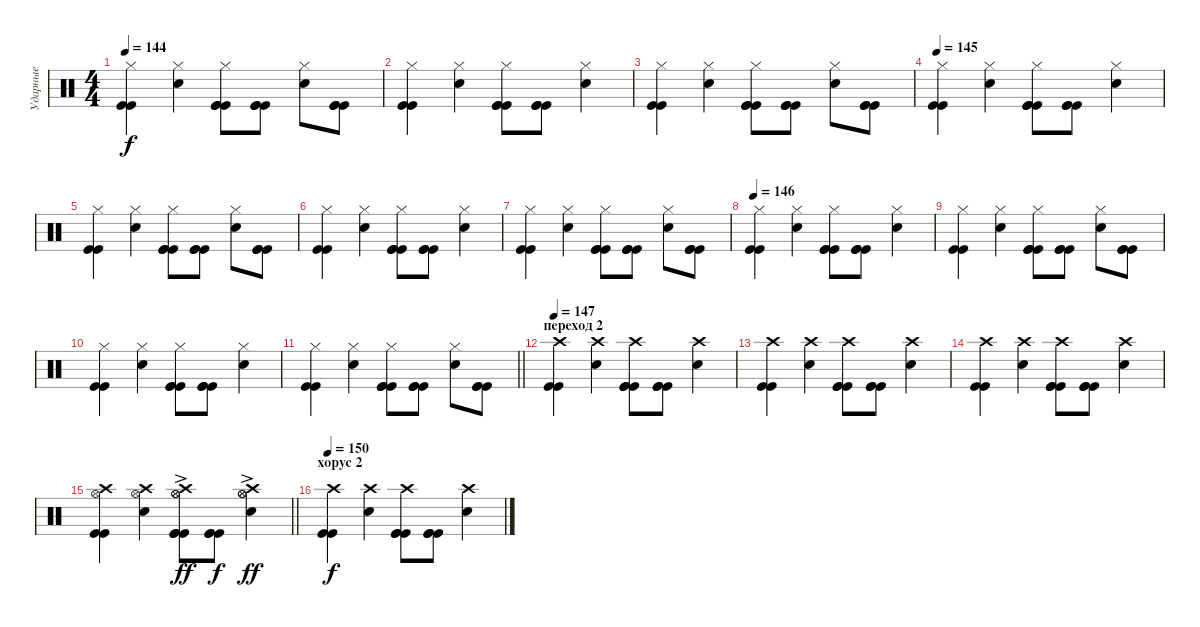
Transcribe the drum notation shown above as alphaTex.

\track ("Ударные" "Ударные") {instrument percussion}
\staff {score}
\articulation defaults
\ts (4 4)
\tempo 144
\clef neutral
\ks c
("Hi-Hat (closed)" "Kick (hit)" "Kick (hit)").4{dy f} ("Snare (hit) 2" "Hi-Hat (closed)").4 ("Kick (hit)" "Kick (hit)" "Kick (hit)" "Hi-Hat (closed)").8 ("Kick (hit)" "Kick (hit)" "Kick (hit)").8 ("Snare (hit) 2" "Hi-Hat (closed)").8 ("Kick (hit)" "Kick (hit)" "Kick (hit)").8 |
("Hi-Hat (closed)" "Kick (hit)" "Kick (hit)").4 ("Snare (hit) 2" "Hi-Hat (closed)").4 ("Kick (hit)" "Kick (hit)" "Kick (hit)" "Hi-Hat (closed)").8 ("Kick (hit)" "Kick (hit)" "Kick (hit)").8 ("Snare (hit) 2" "Hi-Hat (closed)").4 |
("Hi-Hat (closed)" "Kick (hit)" "Kick (hit)").4 ("Snare (hit) 2" "Hi-Hat (closed)").4 ("Kick (hit)" "Kick (hit)" "Kick (hit)" "Hi-Hat (closed)").8 ("Kick (hit)" "Kick (hit)" "Kick (hit)").8 ("Snare (hit) 2" "Hi-Hat (closed)").8 ("Kick (hit)" "Kick (hit)" "Kick (hit)").8 |
\tempo 145
("Hi-Hat (closed)" "Kick (hit)" "Kick (hit)").4 ("Snare (hit) 2" "Hi-Hat (closed)").4 ("Kick (hit)" "Kick (hit)" "Kick (hit)" "Hi-Hat (closed)").8 ("Kick (hit)" "Kick (hit)" "Kick (hit)").8 ("Snare (hit) 2" "Hi-Hat (closed)").4 |
("Hi-Hat (closed)" "Kick (hit)" "Kick (hit)").4 ("Snare (hit) 2" "Hi-Hat (closed)").4 ("Kick (hit)" "Kick (hit)" "Kick (hit)" "Hi-Hat (closed)").8 ("Kick (hit)" "Kick (hit)" "Kick (hit)").8 ("Snare (hit) 2" "Hi-Hat (closed)").8 ("Kick (hit)" "Kick (hit)" "Kick (hit)").8 |
("Hi-Hat (closed)" "Kick (hit)" "Kick (hit)").4 ("Snare (hit) 2" "Hi-Hat (closed)").4 ("Kick (hit)" "Kick (hit)" "Kick (hit)" "Hi-Hat (closed)").8 ("Kick (hit)" "Kick (hit)" "Kick (hit)").8 ("Snare (hit) 2" "Hi-Hat (closed)").4 |
("Hi-Hat (closed)" "Kick (hit)" "Kick (hit)").4 ("Snare (hit) 2" "Hi-Hat (closed)").4 ("Kick (hit)" "Kick (hit)" "Kick (hit)" "Hi-Hat (closed)").8 ("Kick (hit)" "Kick (hit)" "Kick (hit)").8 ("Snare (hit) 2" "Hi-Hat (closed)").8 ("Kick (hit)" "Kick (hit)" "Kick (hit)").8 |
\tempo 146
("Hi-Hat (closed)" "Kick (hit)" "Kick (hit)").4 ("Snare (hit) 2" "Hi-Hat (closed)").4 ("Kick (hit)" "Kick (hit)" "Kick (hit)" "Hi-Hat (closed)").8 ("Kick (hit)" "Kick (hit)" "Kick (hit)").8 ("Snare (hit) 2" "Hi-Hat (closed)").4 |
("Hi-Hat (closed)" "Kick (hit)" "Kick (hit)").4 ("Snare (hit) 2" "Hi-Hat (closed)").4 ("Kick (hit)" "Kick (hit)" "Kick (hit)" "Hi-Hat (closed)").8 ("Kick (hit)" "Kick (hit)" "Kick (hit)").8 ("Snare (hit) 2" "Hi-Hat (closed)").8 ("Kick (hit)" "Kick (hit)" "Kick (hit)").8 |
("Hi-Hat (closed)" "Kick (hit)" "Kick (hit)").4 ("Snare (hit) 2" "Hi-Hat (closed)").4 ("Kick (hit)" "Kick (hit)" "Kick (hit)" "Hi-Hat (closed)").8 ("Kick (hit)" "Kick (hit)" "Kick (hit)").8 ("Snare (hit) 2" "Hi-Hat (closed)").4 |
\barLineRight lightlight
("Hi-Hat (closed)" "Kick (hit)" "Kick (hit)").4 ("Snare (hit) 2" "Hi-Hat (closed)").4 ("Kick (hit)" "Kick (hit)" "Kick (hit)" "Hi-Hat (closed)").8 ("Kick (hit)" "Kick (hit)" "Kick (hit)").8 ("Snare (hit) 2" "Hi-Hat (closed)").8 ("Kick (hit)" "Kick (hit)" "Kick (hit)").8 |
\section ("" "переход 2")
\tempo 147
("Crash high (hit)" "Kick (hit)" "Kick (hit)").4 ("Snare (hit) 2" "Crash high (hit)").4 ("Kick (hit)" "Kick (hit)" "Kick (hit)" "Crash high (hit)").8 ("Kick (hit)" "Kick (hit)" "Kick (hit)").8 ("Snare (hit) 2" "Crash high (hit)").4 |
("Crash high (hit)" "Kick (hit)" "Kick (hit)").4 ("Snare (hit) 2" "Crash high (hit)").4 ("Kick (hit)" "Kick (hit)" "Kick (hit)" "Crash high (hit)").8 ("Kick (hit)" "Kick (hit)" "Kick (hit)").8 ("Snare (hit) 2" "Crash high (hit)").4 |
("Crash high (hit)" "Kick (hit)" "Kick (hit)").4 ("Snare (hit) 2" "Crash high (hit)").4 ("Kick (hit)" "Kick (hit)" "Kick (hit)" "Crash high (hit)").8 ("Kick (hit)" "Kick (hit)" "Kick (hit)").8 ("Snare (hit) 2" "Crash high (hit)").4 |
\barLineRight lightlight
("Crash high (hit)" "Kick (hit)" "Kick (hit)" "Hi-Hat (open)").4 ("Snare (hit) 2" "Crash high (hit)" "Hi-Hat (open)").4 ("Kick (hit)"{ac} "Kick (hit)"{ac} "Kick (hit)"{ac} "Crash high (hit)"{ac} "Hi-Hat (open)"{ac} "Hi-Hat (open)"{ac}).8{dy ff} ("Kick (hit)" "Kick (hit)" "Kick (hit)").8{dy f} ("Snare (hit) 2"{ac} "Crash high (hit)"{ac} "Hi-Hat (open)"{ac} "Hi-Hat (open)"{ac}).4{dy ff} |
\section ("" "хорус 2")
\tempo 150
("Crash high (hit)" "Kick (hit)" "Kick (hit)").4{dy f} ("Snare (hit) 2" "Crash high (hit)").4 ("Kick (hit)" "Kick (hit)" "Kick (hit)" "Crash high (hit)").8 ("Kick (hit)" "Kick (hit)" "Kick (hit)").8 ("Snare (hit) 2" "Crash high (hit)").4
